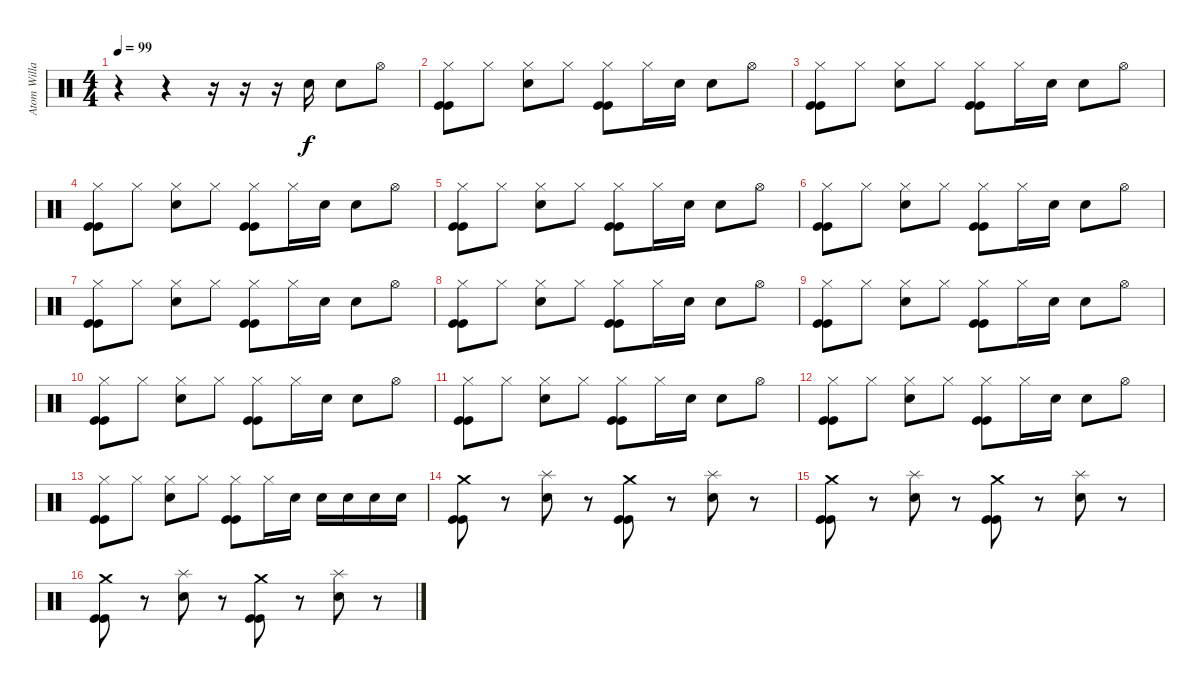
\track ("Atom Willard" "Atom Willa") {instrument percussion}
\staff {score}
\articulation defaults
\ts (4 4)
\tempo 99
\clef neutral
\ks c
r.4{dy f} r.4 r.16 r.16 r.16 "Electric Snare (hit)".16 "Electric Snare (hit)".8 "Hi-Hat (open)".8 |
("Hi-Hat (closed)" "Kick (hit)" "Kick (hit)").8 "Hi-Hat (closed)".8 ("Hi-Hat (closed)" "Electric Snare (hit)").8 "Hi-Hat (closed)".8 ("Hi-Hat (closed)" "Kick (hit)" "Kick (hit)").8 "Hi-Hat (closed)".16 "Electric Snare (hit)".16 "Electric Snare (hit)".8 "Hi-Hat (open)".8 |
("Hi-Hat (closed)" "Kick (hit)" "Kick (hit)").8 "Hi-Hat (closed)".8 ("Hi-Hat (closed)" "Electric Snare (hit)").8 "Hi-Hat (closed)".8 ("Hi-Hat (closed)" "Kick (hit)" "Kick (hit)").8 "Hi-Hat (closed)".16 "Electric Snare (hit)".16 "Electric Snare (hit)".8 "Hi-Hat (open)".8 |
("Hi-Hat (closed)" "Kick (hit)" "Kick (hit)").8 "Hi-Hat (closed)".8 ("Hi-Hat (closed)" "Electric Snare (hit)").8 "Hi-Hat (closed)".8 ("Hi-Hat (closed)" "Kick (hit)" "Kick (hit)").8 "Hi-Hat (closed)".16 "Electric Snare (hit)".16 "Electric Snare (hit)".8 "Hi-Hat (open)".8 |
("Hi-Hat (closed)" "Kick (hit)" "Kick (hit)").8 "Hi-Hat (closed)".8 ("Hi-Hat (closed)" "Electric Snare (hit)").8 "Hi-Hat (closed)".8 ("Hi-Hat (closed)" "Kick (hit)" "Kick (hit)").8 "Hi-Hat (closed)".16 "Electric Snare (hit)".16 "Electric Snare (hit)".8 "Hi-Hat (open)".8 |
("Hi-Hat (closed)" "Kick (hit)" "Kick (hit)").8 "Hi-Hat (closed)".8 ("Hi-Hat (closed)" "Electric Snare (hit)").8 "Hi-Hat (closed)".8 ("Hi-Hat (closed)" "Kick (hit)" "Kick (hit)").8 "Hi-Hat (closed)".16 "Electric Snare (hit)".16 "Electric Snare (hit)".8 "Hi-Hat (open)".8 |
("Hi-Hat (closed)" "Kick (hit)" "Kick (hit)").8 "Hi-Hat (closed)".8 ("Hi-Hat (closed)" "Electric Snare (hit)").8 "Hi-Hat (closed)".8 ("Hi-Hat (closed)" "Kick (hit)" "Kick (hit)").8 "Hi-Hat (closed)".16 "Electric Snare (hit)".16 "Electric Snare (hit)".8 "Hi-Hat (open)".8 |
("Hi-Hat (closed)" "Kick (hit)" "Kick (hit)").8 "Hi-Hat (closed)".8 ("Hi-Hat (closed)" "Electric Snare (hit)").8 "Hi-Hat (closed)".8 ("Hi-Hat (closed)" "Kick (hit)" "Kick (hit)").8 "Hi-Hat (closed)".16 "Electric Snare (hit)".16 "Electric Snare (hit)".8 "Hi-Hat (open)".8 |
("Hi-Hat (closed)" "Kick (hit)" "Kick (hit)").8 "Hi-Hat (closed)".8 ("Hi-Hat (closed)" "Electric Snare (hit)").8 "Hi-Hat (closed)".8 ("Hi-Hat (closed)" "Kick (hit)" "Kick (hit)").8 "Hi-Hat (closed)".16 "Electric Snare (hit)".16 "Electric Snare (hit)".8 "Hi-Hat (open)".8 |
("Hi-Hat (closed)" "Kick (hit)" "Kick (hit)").8 "Hi-Hat (closed)".8 ("Hi-Hat (closed)" "Electric Snare (hit)").8 "Hi-Hat (closed)".8 ("Hi-Hat (closed)" "Kick (hit)" "Kick (hit)").8 "Hi-Hat (closed)".16 "Electric Snare (hit)".16 "Electric Snare (hit)".8 "Hi-Hat (open)".8 |
("Hi-Hat (closed)" "Kick (hit)" "Kick (hit)").8 "Hi-Hat (closed)".8 ("Hi-Hat (closed)" "Electric Snare (hit)").8 "Hi-Hat (closed)".8 ("Hi-Hat (closed)" "Kick (hit)" "Kick (hit)").8 "Hi-Hat (closed)".16 "Electric Snare (hit)".16 "Electric Snare (hit)".8 "Hi-Hat (open)".8 |
("Hi-Hat (closed)" "Kick (hit)" "Kick (hit)").8 "Hi-Hat (closed)".8 ("Hi-Hat (closed)" "Electric Snare (hit)").8 "Hi-Hat (closed)".8 ("Hi-Hat (closed)" "Kick (hit)" "Kick (hit)").8 "Hi-Hat (closed)".16 "Electric Snare (hit)".16 "Electric Snare (hit)".8 "Hi-Hat (open)".8 |
("Hi-Hat (closed)" "Kick (hit)" "Kick (hit)").8 "Hi-Hat (closed)".8 ("Hi-Hat (closed)" "Electric Snare (hit)").8 "Hi-Hat (closed)".8 ("Hi-Hat (closed)" "Kick (hit)" "Kick (hit)").8 "Hi-Hat (closed)".16 "Electric Snare (hit)".16 "Electric Snare (hit)".16 "Electric Snare (hit)".16 "Electric Snare (hit)".16 "Electric Snare (hit)".16 |
("Crash medium (hit)" "Kick (hit)" "Kick (hit)").8 r.8 ("Splash (hit)" "Electric Snare (hit)").8 r.8 ("Crash medium (hit)" "Kick (hit)" "Kick (hit)").8 r.8 ("Splash (hit)" "Electric Snare (hit)").8 r.8 |
("Crash medium (hit)" "Kick (hit)" "Kick (hit)").8 r.8 ("Splash (hit)" "Electric Snare (hit)").8 r.8 ("Crash medium (hit)" "Kick (hit)" "Kick (hit)").8 r.8 ("Splash (hit)" "Electric Snare (hit)").8 r.8 |
("Crash medium (hit)" "Kick (hit)" "Kick (hit)").8 r.8 ("Splash (hit)" "Electric Snare (hit)").8 r.8 ("Crash medium (hit)" "Kick (hit)" "Kick (hit)").8 r.8 ("Splash (hit)" "Electric Snare (hit)").8 r.8
